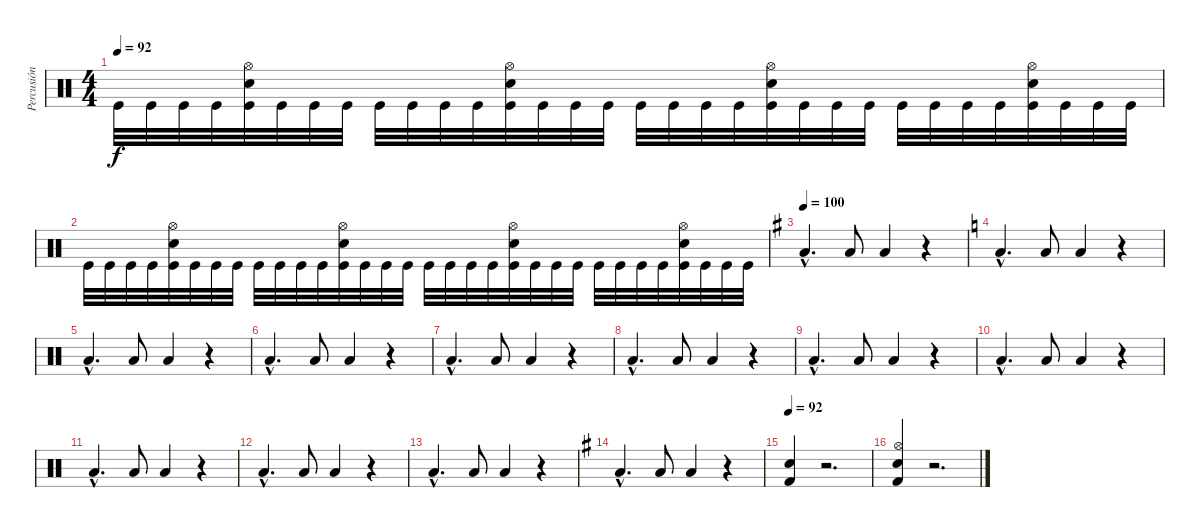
\track ("Percusión" "Percusión") {instrument percussion}
\staff {score}
\articulation defaults
\ts (4 4)
\tempo 92
\clef neutral
\ks c "Kick (hit)".32{dy f} "Kick (hit)".32 "Kick (hit)".32 "Kick (hit)".32
("Snare (hit) 2" "Hi-Hat (open)" "Kick (hit)").32 "Kick (hit)".32 "Kick (hit)".32 "Kick (hit)".32 "Kick (hit)".32 "Kick (hit)".32 "Kick (hit)".32 "Kick (hit)".32 ("Snare (hit) 2" "Hi-Hat (open)" "Kick (hit)").32 "Kick (hit)".32 "Kick (hit)".32 "Kick (hit)".32 "Kick (hit)".32 "Kick (hit)".32 "Kick (hit)".32 "Kick (hit)".32 ("Snare (hit) 2" "Hi-Hat (open)" "Kick (hit)").32 "Kick (hit)".32 "Kick (hit)".32 "Kick (hit)".32 "Kick (hit)".32 "Kick (hit)".32 "Kick (hit)".32 "Kick (hit)".32 ("Snare (hit) 2" "Hi-Hat (open)" "Kick (hit)").32 "Kick (hit)".32 "Kick (hit)".32 "Kick (hit)".32 |
"Kick (hit)".32 "Kick (hit)".32 "Kick (hit)".32 "Kick (hit)".32 ("Snare (hit) 2" "Hi-Hat (open)" "Kick (hit)").32 "Kick (hit)".32 "Kick (hit)".32 "Kick (hit)".32 "Kick (hit)".32 "Kick (hit)".32 "Kick (hit)".32 "Kick (hit)".32 ("Snare (hit) 2" "Hi-Hat (open)" "Kick (hit)").32 "Kick (hit)".32 "Kick (hit)".32 "Kick (hit)".32 "Kick (hit)".32 "Kick (hit)".32 "Kick (hit)".32 "Kick (hit)".32 ("Snare (hit) 2" "Hi-Hat (open)" "Kick (hit)").32 "Kick (hit)".32 "Kick (hit)".32 "Kick (hit)".32 "Kick (hit)".32 "Kick (hit)".32 "Kick (hit)".32 "Kick (hit)".32 ("Snare (hit) 2" "Hi-Hat (open)" "Kick (hit)").32 "Kick (hit)".32 "Kick (hit)".32 "Kick (hit)".32 |
\tempo 100
\ks g "Low Floor Tom (hit)"{hac}.4{d} "Low Floor Tom (hit)".8 "Low Floor Tom (hit)".4
r.4 |
\ks c "Low Floor Tom (hit)"{hac}.4{d} "Low Floor Tom (hit)".8 "Low Floor Tom (hit)".4
r.4 |
"Low Floor Tom (hit)"{hac}.4{d} "Low Floor Tom (hit)".8 "Low Floor Tom (hit)".4 r.4 |
"Low Floor Tom (hit)"{hac}.4{d} "Low Floor Tom (hit)".8 "Low Floor Tom (hit)".4 r.4 |
"Low Floor Tom (hit)"{hac}.4{d} "Low Floor Tom (hit)".8 "Low Floor Tom (hit)".4 r.4 |
"Low Floor Tom (hit)"{hac}.4{d} "Low Floor Tom (hit)".8 "Low Floor Tom (hit)".4 r.4 |
"Low Floor Tom (hit)"{hac}.4{d} "Low Floor Tom (hit)".8 "Low Floor Tom (hit)".4 r.4 |
"Low Floor Tom (hit)"{hac}.4{d} "Low Floor Tom (hit)".8 "Low Floor Tom (hit)".4 r.4 |
"Low Floor Tom (hit)"{hac}.4{d} "Low Floor Tom (hit)".8 "Low Floor Tom (hit)".4 r.4 |
"Low Floor Tom (hit)"{hac}.4{d} "Low Floor Tom (hit)".8 "Low Floor Tom (hit)".4 r.4 |
"Low Floor Tom (hit)"{hac}.4{d} "Low Floor Tom (hit)".8 "Low Floor Tom (hit)".4 r.4 |
\ks g "Low Floor Tom (hit)"{hac}.4{d} "Low Floor Tom (hit)".8 "Low Floor Tom (hit)".4
r.4 |
\tempo 92
("Kick (hit) 2" "Snare (hit) 2").4 r.2{d} |
("Kick (hit) 2" "Snare (hit) 2" "Hi-Hat (open)").4 r.2{d}
